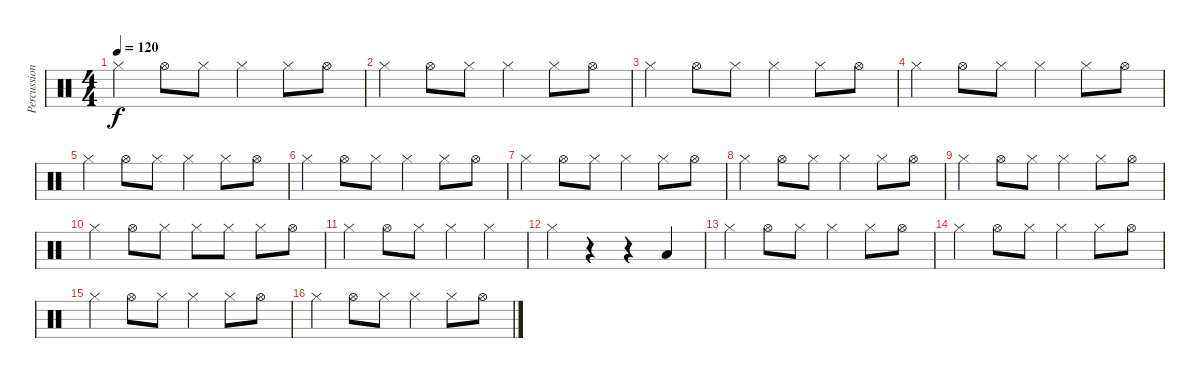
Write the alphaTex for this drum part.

\track ("Percussion" "Percussion") {instrument percussion}
\staff {score}
\articulation defaults
\ts (4 4)
\tempo 120
\clef neutral
\ks aminor "Hi-Hat (closed)".4{dy f} "Hi-Hat (open)".8 "Hi-Hat (closed)".8 "Hi-Hat (closed)".4 "Hi-Hat (closed)".8 "Hi-Hat (open)".8
|
"Hi-Hat (closed)".4 "Hi-Hat (open)".8 "Hi-Hat (closed)".8 "Hi-Hat (closed)".4 "Hi-Hat (closed)".8 "Hi-Hat (open)".8 |
"Hi-Hat (closed)".4 "Hi-Hat (open)".8 "Hi-Hat (closed)".8 "Hi-Hat (closed)".4 "Hi-Hat (closed)".8 "Hi-Hat (open)".8 |
"Hi-Hat (closed)".4 "Hi-Hat (open)".8 "Hi-Hat (closed)".8 "Hi-Hat (closed)".4 "Hi-Hat (closed)".8 "Hi-Hat (open)".8 |
"Hi-Hat (closed)".4 "Hi-Hat (open)".8 "Hi-Hat (closed)".8 "Hi-Hat (closed)".4 "Hi-Hat (closed)".8 "Hi-Hat (open)".8 |
"Hi-Hat (closed)".4 "Hi-Hat (open)".8 "Hi-Hat (closed)".8 "Hi-Hat (closed)".4 "Hi-Hat (closed)".8 "Hi-Hat (open)".8 |
"Hi-Hat (closed)".4 "Hi-Hat (open)".8 "Hi-Hat (closed)".8 "Hi-Hat (closed)".4 "Hi-Hat (closed)".8 "Hi-Hat (open)".8 |
"Hi-Hat (closed)".4 "Hi-Hat (open)".8 "Hi-Hat (closed)".8 "Hi-Hat (closed)".4 "Hi-Hat (closed)".8 "Hi-Hat (open)".8 |
"Hi-Hat (closed)".4 "Hi-Hat (open)".8 "Hi-Hat (closed)".8 "Hi-Hat (closed)".4 "Hi-Hat (closed)".8 "Hi-Hat (open)".8 |
"Hi-Hat (closed)".4 "Hi-Hat (open)".8 "Hi-Hat (closed)".8 "Hi-Hat (closed)".8 "Hi-Hat (closed)".8 "Hi-Hat (closed)".8 "Hi-Hat (open)".8 |
"Hi-Hat (closed)".4 "Hi-Hat (open)".8 "Hi-Hat (closed)".8 "Hi-Hat (closed)".4 "Hi-Hat (closed)".4 |
"Hi-Hat (closed)".4 r.4 r.4 "Low Floor Tom (hit)".4 |
"Hi-Hat (closed)".4 "Hi-Hat (open)".8 "Hi-Hat (closed)".8 "Hi-Hat (closed)".4 "Hi-Hat (closed)".8 "Hi-Hat (open)".8 |
"Hi-Hat (closed)".4 "Hi-Hat (open)".8 "Hi-Hat (closed)".8 "Hi-Hat (closed)".4 "Hi-Hat (closed)".8 "Hi-Hat (open)".8 |
"Hi-Hat (closed)".4 "Hi-Hat (open)".8 "Hi-Hat (closed)".8 "Hi-Hat (closed)".4 "Hi-Hat (closed)".8 "Hi-Hat (open)".8 |
"Hi-Hat (closed)".4 "Hi-Hat (open)".8 "Hi-Hat (closed)".8 "Hi-Hat (closed)".4 "Hi-Hat (closed)".8 "Hi-Hat (open)".8
